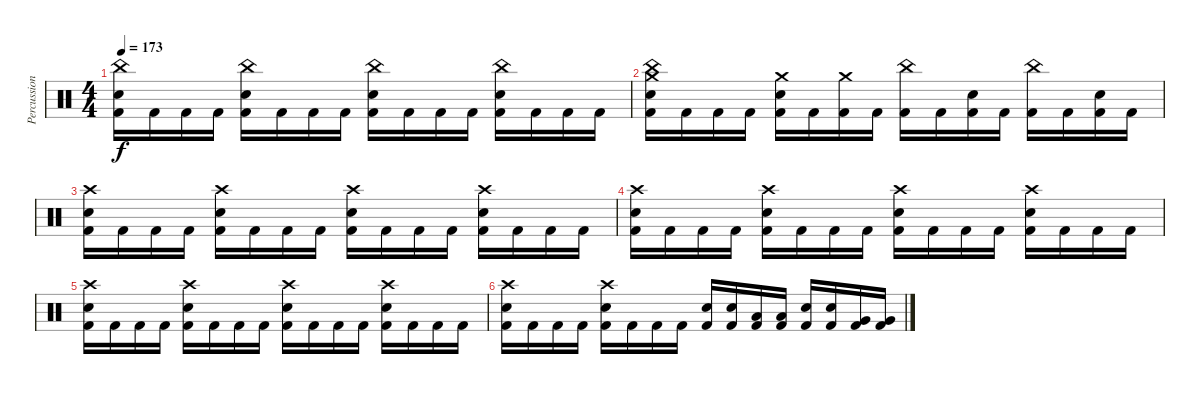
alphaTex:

\track ("Percussion" "Percussion") {instrument percussion}
\staff {score}
\articulation defaults
\ts (4 4)
\tempo 173
\clef neutral
\ks c
("China (hit)" "Electric Snare (hit)" "Kick (hit) 2").16{dy f} "Kick (hit) 2".16 "Kick (hit) 2".16 "Kick (hit) 2".16 ("China (hit)" "Electric Snare (hit)" "Kick (hit) 2").16 "Kick (hit) 2".16 "Kick (hit) 2".16 "Kick (hit) 2".16 ("China (hit)" "Electric Snare (hit)" "Kick (hit) 2").16 "Kick (hit) 2".16 "Kick (hit) 2".16 "Kick (hit) 2".16 ("China (hit)" "Electric Snare (hit)" "Kick (hit) 2").16 "Kick (hit) 2".16 "Kick (hit) 2".16 "Kick (hit) 2".16 |
("China (hit)" "Crash medium (hit)" "Electric Snare (hit)" "Kick (hit) 2").16 "Kick (hit) 2".16 "Kick (hit) 2".16 "Kick (hit) 2".16 ("Crash medium (hit)" "Electric Snare (hit)" "Kick (hit) 2").16 "Kick (hit) 2".16 ("Crash medium (hit)" "Kick (hit) 2").16 "Kick (hit) 2".16 ("China (hit)" "Kick (hit) 2").16 "Kick (hit) 2".16 ("Electric Snare (hit)" "Kick (hit) 2").16 "Kick (hit) 2".16 ("China (hit)" "Kick (hit) 2").16 "Kick (hit) 2".16 ("Electric Snare (hit)" "Kick (hit) 2").16 "Kick (hit) 2".16 |
("Crash high (hit)" "Electric Snare (hit)" "Kick (hit) 2").16 "Kick (hit) 2".16 "Kick (hit) 2".16 "Kick (hit) 2".16 ("Crash high (hit)" "Electric Snare (hit)" "Kick (hit) 2").16 "Kick (hit) 2".16 "Kick (hit) 2".16 "Kick (hit) 2".16 ("Crash high (hit)" "Electric Snare (hit)" "Kick (hit) 2").16 "Kick (hit) 2".16 "Kick (hit) 2".16 "Kick (hit) 2".16 ("Crash high (hit)" "Electric Snare (hit)" "Kick (hit) 2").16 "Kick (hit) 2".16 "Kick (hit) 2".16 "Kick (hit) 2".16 |
("Crash high (hit)" "Electric Snare (hit)" "Kick (hit) 2").16 "Kick (hit) 2".16 "Kick (hit) 2".16 "Kick (hit) 2".16 ("Crash high (hit)" "Electric Snare (hit)" "Kick (hit) 2").16 "Kick (hit) 2".16 "Kick (hit) 2".16 "Kick (hit) 2".16 ("Crash high (hit)" "Electric Snare (hit)" "Kick (hit) 2").16 "Kick (hit) 2".16 "Kick (hit) 2".16 "Kick (hit) 2".16 ("Crash high (hit)" "Electric Snare (hit)" "Kick (hit) 2").16 "Kick (hit) 2".16 "Kick (hit) 2".16 "Kick (hit) 2".16 |
("Crash high (hit)" "Electric Snare (hit)" "Kick (hit) 2").16 "Kick (hit) 2".16 "Kick (hit) 2".16 "Kick (hit) 2".16 ("Crash high (hit)" "Electric Snare (hit)" "Kick (hit) 2").16 "Kick (hit) 2".16 "Kick (hit) 2".16 "Kick (hit) 2".16 ("Crash high (hit)" "Electric Snare (hit)" "Kick (hit) 2").16 "Kick (hit) 2".16 "Kick (hit) 2".16 "Kick (hit) 2".16 ("Crash high (hit)" "Electric Snare (hit)" "Kick (hit) 2").16 "Kick (hit) 2".16 "Kick (hit) 2".16 "Kick (hit) 2".16 |
("Crash high (hit)" "Electric Snare (hit)" "Kick (hit) 2").16 "Kick (hit) 2".16 "Kick (hit) 2".16 "Kick (hit) 2".16 ("Crash high (hit)" "Electric Snare (hit)" "Kick (hit) 2").16 "Kick (hit) 2".16 "Kick (hit) 2".16 "Kick (hit) 2".16 ("Electric Snare (hit)" "Kick (hit) 2").16 ("Electric Snare (hit)" "Kick (hit) 2").16 ("Low Floor Tom (hit)" "Kick (hit) 2").16 ("Low Floor Tom (hit)" "Kick (hit) 2").16 ("Electric Snare (hit)" "Kick (hit) 2").16 ("Electric Snare (hit)" "Kick (hit) 2").16 ("Very Low Tom (hit)" "Kick (hit) 2").16 ("Very Low Tom (hit)" "Kick (hit) 2").16
